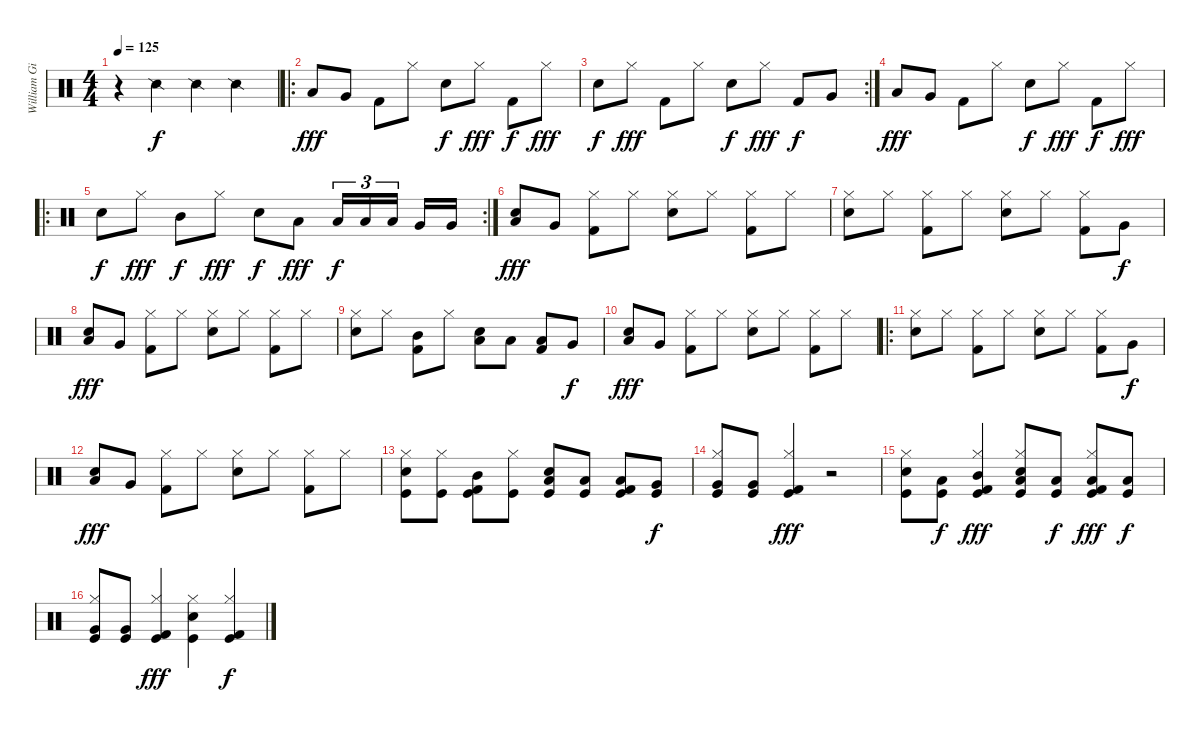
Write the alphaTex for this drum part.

\track ("William Gibson" "William Gi") {instrument percussion}
\staff {score}
\articulation defaults
\ts (4 4)
\tempo 125
\clef neutral
\ks c
r.4{dy f} "Snare (side stick) 2".4 "Snare (side stick) 2".4 "Snare (side stick) 2".4 |
\ro "Low Tom (hit)".8{dy fff} "Very Low Tom (hit)".8 "Kick (hit) 2".8 "Hi-Hat (closed)".8 "Electric Snare (hit)".8{dy f} "Hi-Hat (closed)".8{dy fff} "Kick (hit) 2".8{dy f} "Hi-Hat (closed)".8{dy fff}
|
\rc 2 "Electric Snare (hit)".8{dy f} "Hi-Hat (closed)".8{dy fff} "Kick (hit) 2".8 "Hi-Hat (closed)".8 "Electric Snare (hit)".8{dy f} "Hi-Hat (closed)".8{dy fff} "Kick (hit) 2".8{dy f} "Very Low Tom (hit)".8
|
"Low Tom (hit)".8{dy fff} "Very Low Tom (hit)".8 "Kick (hit) 2".8 "Hi-Hat (closed)".8 "Electric Snare (hit)".8{dy f} "Hi-Hat (closed)".8{dy fff} "Kick (hit) 2".8{dy f} "Hi-Hat (closed)".8{dy fff} |
\ro
\rc 2 "Electric Snare (hit)".8{dy f} "Hi-Hat (closed)".8{dy fff} "Mid Tom (hit)".8{dy f} "Hi-Hat (closed)".8{dy fff} "Electric Snare (hit)".8{dy f} "Low Tom (hit)".8{dy fff} "Low Floor Tom (hit)".16{tu (3 2) dy f} "Low Floor Tom (hit)".16{tu (3 2)} "Low Floor Tom (hit)".16{tu (3 2)} "Very Low Tom (hit)".16 "Very Low Tom (hit)".16
|
("Low Tom (hit)" "Electric Snare (hit)").8{dy fff} "Very Low Tom (hit)".8 ("Hi-Hat (closed)" "Kick (hit) 2").8 "Hi-Hat (closed)".8 ("Hi-Hat (closed)" "Electric Snare (hit)").8 "Hi-Hat (closed)".8 ("Hi-Hat (closed)" "Kick (hit) 2").8 "Hi-Hat (closed)".8 |
("Hi-Hat (closed)" "Electric Snare (hit)").8 "Hi-Hat (closed)".8 ("Hi-Hat (closed)" "Kick (hit) 2").8 "Hi-Hat (closed)".8 ("Hi-Hat (closed)" "Electric Snare (hit)").8 "Hi-Hat (closed)".8 ("Hi-Hat (closed)" "Kick (hit) 2").8 "Very Low Tom (hit)".8{dy f} |
("Low Tom (hit)" "Electric Snare (hit)").8{dy fff} "Very Low Tom (hit)".8 ("Hi-Hat (closed)" "Kick (hit) 2").8 "Hi-Hat (closed)".8 ("Hi-Hat (closed)" "Electric Snare (hit)").8 "Hi-Hat (closed)".8 ("Hi-Hat (closed)" "Kick (hit) 2").8 "Hi-Hat (closed)".8 |
("Hi-Hat (closed)" "Electric Snare (hit)").8 "Hi-Hat (closed)".8 ("Mid Tom (hit)" "Kick (hit) 2").8 "Hi-Hat (closed)".8 ("Low Tom (hit)" "Electric Snare (hit)").8 "Low Tom (hit)".8 ("Low Floor Tom (hit)" "Kick (hit) 2").8 "Very Low Tom (hit)".8{dy f} |
("Low Tom (hit)" "Electric Snare (hit)").8{dy fff} "Very Low Tom (hit)".8 ("Hi-Hat (closed)" "Kick (hit) 2").8 "Hi-Hat (closed)".8 ("Hi-Hat (closed)" "Electric Snare (hit)").8 "Hi-Hat (closed)".8 ("Hi-Hat (closed)" "Kick (hit) 2").8 "Hi-Hat (closed)".8 |
\ro
("Hi-Hat (closed)" "Electric Snare (hit)").8 "Hi-Hat (closed)".8 ("Hi-Hat (closed)" "Kick (hit) 2").8 "Hi-Hat (closed)".8 ("Hi-Hat (closed)" "Electric Snare (hit)").8 "Hi-Hat (closed)".8 ("Hi-Hat (closed)" "Kick (hit) 2").8 "Very Low Tom (hit)".8{dy f} |
("Low Tom (hit)" "Electric Snare (hit)").8{dy fff} "Very Low Tom (hit)".8 ("Hi-Hat (closed)" "Kick (hit) 2").8 "Hi-Hat (closed)".8 ("Hi-Hat (closed)" "Electric Snare (hit)").8 "Hi-Hat (closed)".8 ("Hi-Hat (closed)" "Kick (hit) 2").8 "Hi-Hat (closed)".8 |
("Hi-Hat (closed)" "Electric Snare (hit)" "Kick (hit)").8 ("Hi-Hat (closed)" "Kick (hit)").8 ("Mid Tom (hit)" "Kick (hit) 2" "Kick (hit)").8 ("Hi-Hat (closed)" "Kick (hit)").8 ("Low Tom (hit)" "Electric Snare (hit)" "Kick (hit)").8 ("Low Tom (hit)" "Kick (hit)").8 ("Low Floor Tom (hit)" "Kick (hit) 2" "Kick (hit)").8 ("Very Low Tom (hit)" "Kick (hit)").8{dy f} |
("Hi-Hat (closed)" "Very Low Tom (hit)" "Kick (hit)").8 ("Very Low Tom (hit)" "Kick (hit)").8 ("Hi-Hat (closed)" "Kick (hit) 2" "Kick (hit)").4{dy fff} r.2 |
("Hi-Hat (closed)" "Electric Snare (hit)" "Kick (hit)").8 ("Low Floor Tom (hit)" "Kick (hit)").8{dy f} ("Hi-Hat (closed)" "Kick (hit) 2" "Mid Tom (hit)" "Kick (hit)").4{dy fff} ("Hi-Hat (closed)" "Electric Snare (hit)" "Low Tom (hit)" "Kick (hit)").8 ("Low Tom (hit)" "Kick (hit)").8{dy f} ("Hi-Hat (closed)" "Kick (hit) 2" "Low Floor Tom (hit)" "Kick (hit)").8{dy fff} ("Low Floor Tom (hit)" "Kick (hit)").8{dy f} |
("Hi-Hat (closed)" "Very Low Tom (hit)" "Kick (hit)").8 ("Very Low Tom (hit)" "Kick (hit)").8 ("Hi-Hat (closed)" "Kick (hit) 2" "Kick (hit)").4{dy fff} ("Hi-Hat (closed)" "Electric Snare (hit)" "Kick (hit)").4 ("Hi-Hat (closed)" "Kick (hit) 2" "Kick (hit)").4{dy f}
